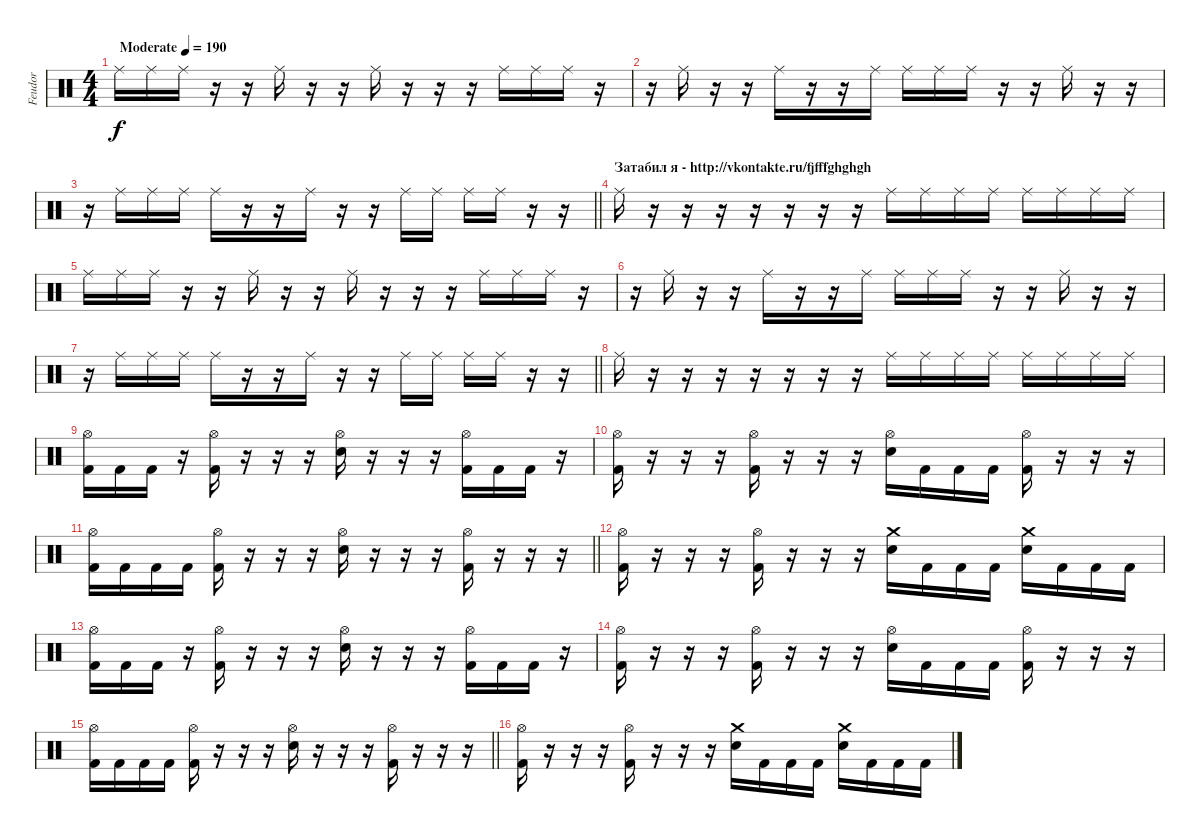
\track ("Feudor" "Feudor") {instrument percussion}
\staff {score}
\articulation defaults
\ts (4 4)
\tempo (190 "Moderate")
\clef neutral
\ks c "Ride (middle)".16{dy f} "Ride (middle)".16 "Ride (middle)".16
r.16 r.16 "Ride (middle)".16 r.16 r.16 "Ride (middle)".16 r.16 r.16 r.16 "Ride (middle)".16 "Ride (middle)".16 "Ride (middle)".16 r.16 |
r.16 "Ride (middle)".16 r.16 r.16 "Ride (middle)".16 r.16 r.16 "Ride (middle)".16 "Ride (middle)".16 "Ride (middle)".16 "Ride (middle)".16 r.16 r.16 "Ride (middle)".16 r.16 r.16 |
\barLineRight lightlight
r.16 "Ride (middle)".16 "Ride (middle)".16 "Ride (middle)".16 "Ride (middle)".16 r.16 r.16 "Ride (middle)".16 r.16 r.16 "Ride (middle)".16 "Ride (middle)".16 "Ride (middle)".16 "Ride (middle)".16 r.16 r.16 |
\section ("" "Затабил я - http://vkontakte.ru/fjfffghghgh")
"Ride (middle)".16 r.16 r.16 r.16 r.16 r.16 r.16 r.16 "Ride (middle)".16 "Ride (middle)".16 "Ride (middle)".16 "Ride (middle)".16 "Ride (middle)".16 "Ride (middle)".16 "Ride (middle)".16 "Ride (middle)".16 |
"Ride (middle)".16 "Ride (middle)".16 "Ride (middle)".16 r.16 r.16 "Ride (middle)".16 r.16 r.16 "Ride (middle)".16 r.16 r.16 r.16 "Ride (middle)".16 "Ride (middle)".16 "Ride (middle)".16 r.16 |
r.16 "Ride (middle)".16 r.16 r.16 "Ride (middle)".16 r.16 r.16 "Ride (middle)".16 "Ride (middle)".16 "Ride (middle)".16 "Ride (middle)".16 r.16 r.16 "Ride (middle)".16 r.16 r.16 |
\barLineRight lightlight
r.16 "Ride (middle)".16 "Ride (middle)".16 "Ride (middle)".16 "Ride (middle)".16 r.16 r.16 "Ride (middle)".16 r.16 r.16 "Ride (middle)".16 "Ride (middle)".16 "Ride (middle)".16 "Ride (middle)".16 r.16 r.16 |
"Ride (middle)".16 r.16 r.16 r.16 r.16 r.16 r.16 r.16 "Ride (middle)".16 "Ride (middle)".16 "Ride (middle)".16 "Ride (middle)".16 "Ride (middle)".16 "Ride (middle)".16 "Ride (middle)".16 "Ride (middle)".16 |
("Hi-Hat (open)" "Kick (hit) 2").16 "Kick (hit) 2".16 "Kick (hit) 2".16 r.16 ("Hi-Hat (open)" "Kick (hit) 2").16 r.16 r.16 r.16 ("Hi-Hat (open)" "Snare (hit) 2").16 r.16 r.16 r.16 ("Hi-Hat (open)" "Kick (hit) 2").16 "Kick (hit) 2".16 "Kick (hit) 2".16 r.16 |
("Hi-Hat (open)" "Kick (hit) 2").16 r.16 r.16 r.16 ("Hi-Hat (open)" "Kick (hit) 2").16 r.16 r.16 r.16 ("Hi-Hat (open)" "Snare (hit) 2").16 "Kick (hit) 2".16 "Kick (hit) 2".16 "Kick (hit) 2".16 ("Hi-Hat (open)" "Kick (hit) 2").16 r.16 r.16 r.16 |
\barLineRight lightlight
("Hi-Hat (open)" "Kick (hit) 2").16 "Kick (hit) 2".16 "Kick (hit) 2".16 "Kick (hit) 2".16 ("Hi-Hat (open)" "Kick (hit) 2").16 r.16 r.16 r.16 ("Hi-Hat (open)" "Snare (hit) 2").16 r.16 r.16 r.16 ("Hi-Hat (open)" "Kick (hit) 2").16 r.16 r.16 r.16 |
("Hi-Hat (open)" "Kick (hit) 2").16 r.16 r.16 r.16 ("Hi-Hat (open)" "Kick (hit) 2").16 r.16 r.16 r.16 ("Crash medium (hit)" "Snare (hit) 2").16 "Kick (hit) 2".16 "Kick (hit) 2".16 "Kick (hit) 2".16 ("Crash medium (hit)" "Snare (hit) 2").16 "Kick (hit) 2".16 "Kick (hit) 2".16 "Kick (hit) 2".16 |
("Hi-Hat (open)" "Kick (hit) 2").16 "Kick (hit) 2".16 "Kick (hit) 2".16 r.16 ("Hi-Hat (open)" "Kick (hit) 2").16 r.16 r.16 r.16 ("Hi-Hat (open)" "Snare (hit) 2").16 r.16 r.16 r.16 ("Hi-Hat (open)" "Kick (hit) 2").16 "Kick (hit) 2".16 "Kick (hit) 2".16 r.16 |
("Hi-Hat (open)" "Kick (hit) 2").16 r.16 r.16 r.16 ("Hi-Hat (open)" "Kick (hit) 2").16 r.16 r.16 r.16 ("Hi-Hat (open)" "Snare (hit) 2").16 "Kick (hit) 2".16 "Kick (hit) 2".16 "Kick (hit) 2".16 ("Hi-Hat (open)" "Kick (hit) 2").16 r.16 r.16 r.16 |
\barLineRight lightlight
("Hi-Hat (open)" "Kick (hit) 2").16 "Kick (hit) 2".16 "Kick (hit) 2".16 "Kick (hit) 2".16 ("Hi-Hat (open)" "Kick (hit) 2").16 r.16 r.16 r.16 ("Hi-Hat (open)" "Snare (hit) 2").16 r.16 r.16 r.16 ("Hi-Hat (open)" "Kick (hit) 2").16 r.16 r.16 r.16 |
("Hi-Hat (open)" "Kick (hit) 2").16 r.16 r.16 r.16 ("Hi-Hat (open)" "Kick (hit) 2").16 r.16 r.16 r.16 ("Crash medium (hit)" "Snare (hit) 2").16 "Kick (hit) 2".16 "Kick (hit) 2".16 "Kick (hit) 2".16 ("Crash medium (hit)" "Snare (hit) 2").16 "Kick (hit) 2".16 "Kick (hit) 2".16 "Kick (hit) 2".16
